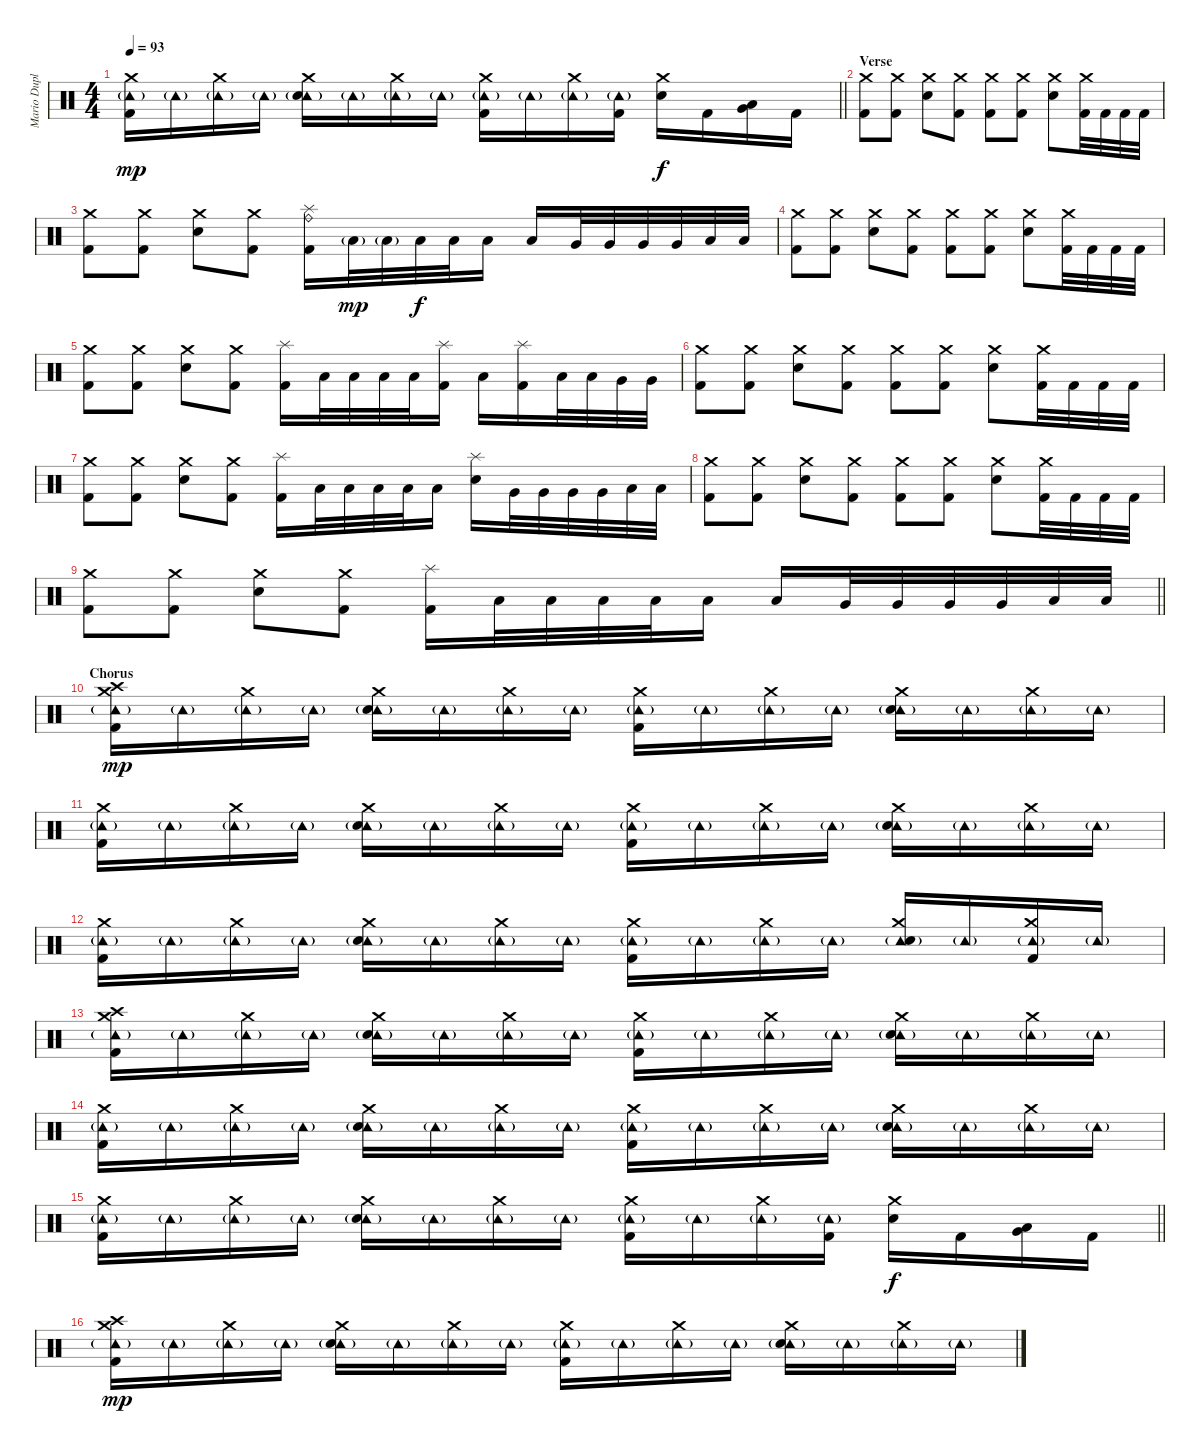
\track ("Mario Duplantier" "Mario Dupl") {instrument percussion}
\staff {score}
\articulation defaults
\ts (4 4)
\tempo 93
\clef neutral
\barLineRight lightlight
\ks c
("Tambourine (hit)"{g} "Crash medium (hit)" "Kick (hit) 2").16{dy mp} "Tambourine (hit)"{g}.16 ("Tambourine (hit)"{g} "Crash medium (hit)").16 "Tambourine (hit)"{g}.16 ("Tambourine (hit)"{g} "Crash medium (hit)" "Electric Snare (hit)").16 "Tambourine (hit)"{g}.16 ("Tambourine (hit)"{g} "Crash medium (hit)").16 "Tambourine (hit)"{g}.16 ("Tambourine (hit)"{g} "Crash medium (hit)" "Kick (hit) 2").16 "Tambourine (hit)"{g}.16 ("Tambourine (hit)"{g} "Crash medium (hit)").16 ("Tambourine (hit)"{g} "Kick (hit) 2").16 ("Crash medium (hit)" "Electric Snare (hit)").16{dy f} "Kick (hit) 2".16 ("Very Low Tom (hit)" "Low Floor Tom (hit)").16 "Kick (hit) 2".16 |
\section ("" "Verse")
("Crash medium (hit)" "Kick (hit) 2").8 ("Crash medium (hit)" "Kick (hit) 2").8 ("Crash medium (hit)" "Electric Snare (hit)").8 ("Crash medium (hit)" "Kick (hit) 2").8 ("Crash medium (hit)" "Kick (hit) 2").8 ("Crash medium (hit)" "Kick (hit) 2").8 ("Crash medium (hit)" "Electric Snare (hit)").8 ("Crash medium (hit)" "Kick (hit) 2").32 "Kick (hit) 2".32 "Kick (hit) 2".32 "Kick (hit) 2".32 |
("Crash medium (hit)" "Kick (hit) 2").8 ("Crash medium (hit)" "Kick (hit) 2").8 ("Crash medium (hit)" "Electric Snare (hit)").8 ("Crash medium (hit)" "Kick (hit) 2").8 ("Splash (hit)" "Ride (bell)" "Kick (hit) 2").16 "Low Tom (hit)"{g}.32{dy mp} "Low Tom (hit)"{g}.32 "Low Tom (hit)".32{dy f} "Low Tom (hit)".32 "Low Tom (hit)".16 "Low Tom (hit)".16 "Very Low Tom (hit)".32 "Very Low Tom (hit)".32 "Very Low Tom (hit)".32 "Very Low Tom (hit)".32 "Low Floor Tom (hit)".32 "Low Floor Tom (hit)".32 |
("Crash medium (hit)" "Kick (hit) 2").8 ("Crash medium (hit)" "Kick (hit) 2").8 ("Crash medium (hit)" "Electric Snare (hit)").8 ("Crash medium (hit)" "Kick (hit) 2").8 ("Crash medium (hit)" "Kick (hit) 2").8 ("Crash medium (hit)" "Kick (hit) 2").8 ("Crash medium (hit)" "Electric Snare (hit)").8 ("Crash medium (hit)" "Kick (hit) 2").32 "Kick (hit) 2".32 "Kick (hit) 2".32 "Kick (hit) 2".32 |
("Crash medium (hit)" "Kick (hit) 2").8 ("Crash medium (hit)" "Kick (hit) 2").8 ("Crash medium (hit)" "Electric Snare (hit)").8 ("Crash medium (hit)" "Kick (hit) 2").8 ("Splash (hit)" "Kick (hit) 2").16 "Low Tom (hit)".32 "Low Tom (hit)".32 "Low Tom (hit)".32 "Low Tom (hit)".32 ("Splash (hit)" "Kick (hit) 2").16 "Low Tom (hit)".16 ("Splash (hit)" "Kick (hit) 2").16 "Low Tom (hit)".32 "Low Tom (hit)".32 "Very Low Tom (hit)".32 "Very Low Tom (hit)".32 |
("Crash medium (hit)" "Kick (hit) 2").8 ("Crash medium (hit)" "Kick (hit) 2").8 ("Crash medium (hit)" "Electric Snare (hit)").8 ("Crash medium (hit)" "Kick (hit) 2").8 ("Crash medium (hit)" "Kick (hit) 2").8 ("Crash medium (hit)" "Kick (hit) 2").8 ("Crash medium (hit)" "Electric Snare (hit)").8 ("Crash medium (hit)" "Kick (hit) 2").32 "Kick (hit) 2".32 "Kick (hit) 2".32 "Kick (hit) 2".32 |
("Crash medium (hit)" "Kick (hit) 2").8 ("Crash medium (hit)" "Kick (hit) 2").8 ("Crash medium (hit)" "Electric Snare (hit)").8 ("Crash medium (hit)" "Kick (hit) 2").8 ("Splash (hit)" "Kick (hit) 2").16 "Low Tom (hit)".32 "Low Tom (hit)".32 "Low Tom (hit)".32 "Low Tom (hit)".32 "Low Tom (hit)".16 ("Splash (hit)" "Electric Snare (hit)").16 "Very Low Tom (hit)".32 "Very Low Tom (hit)".32 "Very Low Tom (hit)".32 "Very Low Tom (hit)".32 "Low Floor Tom (hit)".32 "Low Floor Tom (hit)".32 |
("Crash medium (hit)" "Kick (hit) 2").8 ("Crash medium (hit)" "Kick (hit) 2").8 ("Crash medium (hit)" "Electric Snare (hit)").8 ("Crash medium (hit)" "Kick (hit) 2").8 ("Crash medium (hit)" "Kick (hit) 2").8 ("Crash medium (hit)" "Kick (hit) 2").8 ("Crash medium (hit)" "Electric Snare (hit)").8 ("Crash medium (hit)" "Kick (hit) 2").32 "Kick (hit) 2".32 "Kick (hit) 2".32 "Kick (hit) 2".32 |
\barLineRight lightlight
("Crash medium (hit)" "Kick (hit) 2").8 ("Crash medium (hit)" "Kick (hit) 2").8 ("Crash medium (hit)" "Electric Snare (hit)").8 ("Crash medium (hit)" "Kick (hit) 2").8 ("Splash (hit)" "Kick (hit) 2").16 "Low Tom (hit)".32 "Low Tom (hit)".32 "Low Tom (hit)".32 "Low Tom (hit)".32 "Low Tom (hit)".16 "Low Tom (hit)".16 "Very Low Tom (hit)".32 "Very Low Tom (hit)".32 "Very Low Tom (hit)".32 "Very Low Tom (hit)".32 "Low Floor Tom (hit)".32 "Low Floor Tom (hit)".32 |
\section ("" "Chorus")
("Tambourine (hit)"{g} "Crash high (hit)" "Crash medium (hit)" "Kick (hit) 2").16{dy mp} "Tambourine (hit)"{g}.16 ("Tambourine (hit)"{g} "Crash medium (hit)").16 "Tambourine (hit)"{g}.16 ("Tambourine (hit)"{g} "Crash medium (hit)" "Electric Snare (hit)").16 "Tambourine (hit)"{g}.16 ("Tambourine (hit)"{g} "Crash medium (hit)").16 "Tambourine (hit)"{g}.16 ("Tambourine (hit)"{g} "Crash medium (hit)" "Kick (hit) 2").16 "Tambourine (hit)"{g}.16 ("Tambourine (hit)"{g} "Crash medium (hit)").16 "Tambourine (hit)"{g}.16 ("Tambourine (hit)"{g} "Crash medium (hit)" "Electric Snare (hit)").16 "Tambourine (hit)"{g}.16 ("Tambourine (hit)"{g} "Crash medium (hit)").16 "Tambourine (hit)"{g}.16 |
("Tambourine (hit)"{g} "Crash medium (hit)" "Kick (hit) 2").16 "Tambourine (hit)"{g}.16 ("Tambourine (hit)"{g} "Crash medium (hit)").16 "Tambourine (hit)"{g}.16 ("Tambourine (hit)"{g} "Crash medium (hit)" "Electric Snare (hit)").16 "Tambourine (hit)"{g}.16 ("Tambourine (hit)"{g} "Crash medium (hit)").16 "Tambourine (hit)"{g}.16 ("Tambourine (hit)"{g} "Crash medium (hit)" "Kick (hit) 2").16 "Tambourine (hit)"{g}.16 ("Tambourine (hit)"{g} "Crash medium (hit)").16 "Tambourine (hit)"{g}.16 ("Tambourine (hit)"{g} "Crash medium (hit)" "Electric Snare (hit)").16 "Tambourine (hit)"{g}.16 ("Tambourine (hit)"{g} "Crash medium (hit)").16 "Tambourine (hit)"{g}.16 |
("Tambourine (hit)"{g} "Crash medium (hit)" "Kick (hit) 2").16 "Tambourine (hit)"{g}.16 ("Tambourine (hit)"{g} "Crash medium (hit)").16 "Tambourine (hit)"{g}.16 ("Tambourine (hit)"{g} "Crash medium (hit)" "Electric Snare (hit)").16 "Tambourine (hit)"{g}.16 ("Tambourine (hit)"{g} "Crash medium (hit)").16 "Tambourine (hit)"{g}.16 ("Tambourine (hit)"{g} "Crash medium (hit)" "Kick (hit) 2").16 "Tambourine (hit)"{g}.16 ("Tambourine (hit)"{g} "Crash medium (hit)").16 "Tambourine (hit)"{g}.16 ("Tambourine (hit)"{g} "Crash medium (hit)" "Electric Snare (hit)").16 "Tambourine (hit)"{g}.16 ("Tambourine (hit)"{g} "Crash medium (hit)" "Kick (hit) 2").16 "Tambourine (hit)"{g}.16 |
("Tambourine (hit)"{g} "Crash high (hit)" "Crash medium (hit)" "Kick (hit) 2").16 "Tambourine (hit)"{g}.16 ("Tambourine (hit)"{g} "Crash medium (hit)").16 "Tambourine (hit)"{g}.16 ("Tambourine (hit)"{g} "Crash medium (hit)" "Electric Snare (hit)").16 "Tambourine (hit)"{g}.16 ("Tambourine (hit)"{g} "Crash medium (hit)").16 "Tambourine (hit)"{g}.16 ("Tambourine (hit)"{g} "Crash medium (hit)" "Kick (hit) 2").16 "Tambourine (hit)"{g}.16 ("Tambourine (hit)"{g} "Crash medium (hit)").16 "Tambourine (hit)"{g}.16 ("Tambourine (hit)"{g} "Crash medium (hit)" "Electric Snare (hit)").16 "Tambourine (hit)"{g}.16 ("Tambourine (hit)"{g} "Crash medium (hit)").16 "Tambourine (hit)"{g}.16 |
("Tambourine (hit)"{g} "Crash medium (hit)" "Kick (hit) 2").16 "Tambourine (hit)"{g}.16 ("Tambourine (hit)"{g} "Crash medium (hit)").16 "Tambourine (hit)"{g}.16 ("Tambourine (hit)"{g} "Crash medium (hit)" "Electric Snare (hit)").16 "Tambourine (hit)"{g}.16 ("Tambourine (hit)"{g} "Crash medium (hit)").16 "Tambourine (hit)"{g}.16 ("Tambourine (hit)"{g} "Crash medium (hit)" "Kick (hit) 2").16 "Tambourine (hit)"{g}.16 ("Tambourine (hit)"{g} "Crash medium (hit)").16 "Tambourine (hit)"{g}.16 ("Tambourine (hit)"{g} "Crash medium (hit)" "Electric Snare (hit)").16 "Tambourine (hit)"{g}.16 ("Tambourine (hit)"{g} "Crash medium (hit)").16 "Tambourine (hit)"{g}.16 |
\barLineRight lightlight
("Tambourine (hit)"{g} "Crash medium (hit)" "Kick (hit) 2").16 "Tambourine (hit)"{g}.16 ("Tambourine (hit)"{g} "Crash medium (hit)").16 "Tambourine (hit)"{g}.16 ("Tambourine (hit)"{g} "Crash medium (hit)" "Electric Snare (hit)").16 "Tambourine (hit)"{g}.16 ("Tambourine (hit)"{g} "Crash medium (hit)").16 "Tambourine (hit)"{g}.16 ("Tambourine (hit)"{g} "Crash medium (hit)" "Kick (hit) 2").16 "Tambourine (hit)"{g}.16 ("Tambourine (hit)"{g} "Crash medium (hit)").16 ("Tambourine (hit)"{g} "Kick (hit) 2").16 ("Crash medium (hit)" "Electric Snare (hit)").16{dy f} "Kick (hit) 2".16 ("Very Low Tom (hit)" "Low Floor Tom (hit)").16 "Kick (hit) 2".16 |
("Tambourine (hit)"{g} "Crash high (hit)" "Crash medium (hit)" "Kick (hit) 2").16{dy mp} "Tambourine (hit)"{g}.16 ("Tambourine (hit)"{g} "Crash medium (hit)").16 "Tambourine (hit)"{g}.16 ("Tambourine (hit)"{g} "Crash medium (hit)" "Electric Snare (hit)").16 "Tambourine (hit)"{g}.16 ("Tambourine (hit)"{g} "Crash medium (hit)").16 "Tambourine (hit)"{g}.16 ("Tambourine (hit)"{g} "Crash medium (hit)" "Kick (hit) 2").16 "Tambourine (hit)"{g}.16 ("Tambourine (hit)"{g} "Crash medium (hit)").16 "Tambourine (hit)"{g}.16 ("Tambourine (hit)"{g} "Crash medium (hit)" "Electric Snare (hit)").16 "Tambourine (hit)"{g}.16 ("Tambourine (hit)"{g} "Crash medium (hit)").16 "Tambourine (hit)"{g}.16
